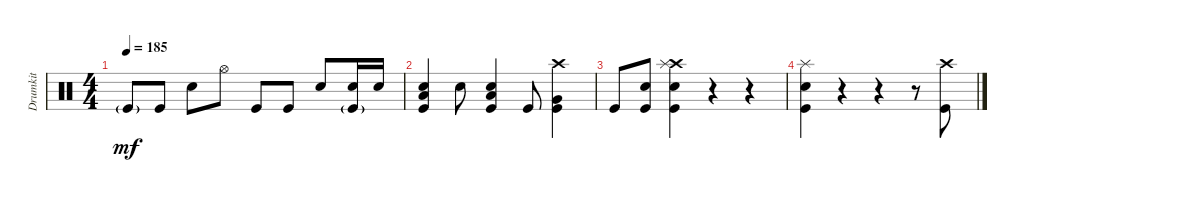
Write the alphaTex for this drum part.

\track ("Drumkit" "Drumkit") {instrument percussion}
\staff {score}
\articulation defaults
\ts (4 4)
\tempo 185
\clef neutral
\ks c "Kick (hit)"{g}.8{dy mf} "Kick (hit)".8 "Snare (hit) 2".8 "Hi-Hat (open)".8 "Kick (hit)".8 "Kick (hit)".8 "Snare (hit) 2".8
("Kick (hit)"{g} "Snare (hit) 2").16 "Snare (hit) 2".16 |
("Kick (hit)" "Low Floor Tom (hit)" "Snare (hit) 2").4 "Snare (hit) 2".8 ("Kick (hit)" "Low Floor Tom (hit)" "Snare (hit) 2").4 "Kick (hit)".8 ("Kick (hit)" "Very Low Tom (hit)" "Crash high (hit)").4 |
"Kick (hit)".8 ("Kick (hit)" "Snare (hit) 2").8 ("Kick (hit)" "Snare (hit) 2" "Crash high (hit)" "Splash (hit)").4 r.4 r.4 |
("Kick (hit)" "Snare (hit) 2" "Splash (hit)").4 r.4 r.4 r.8 ("Kick (hit)" "Crash high (hit)").8
